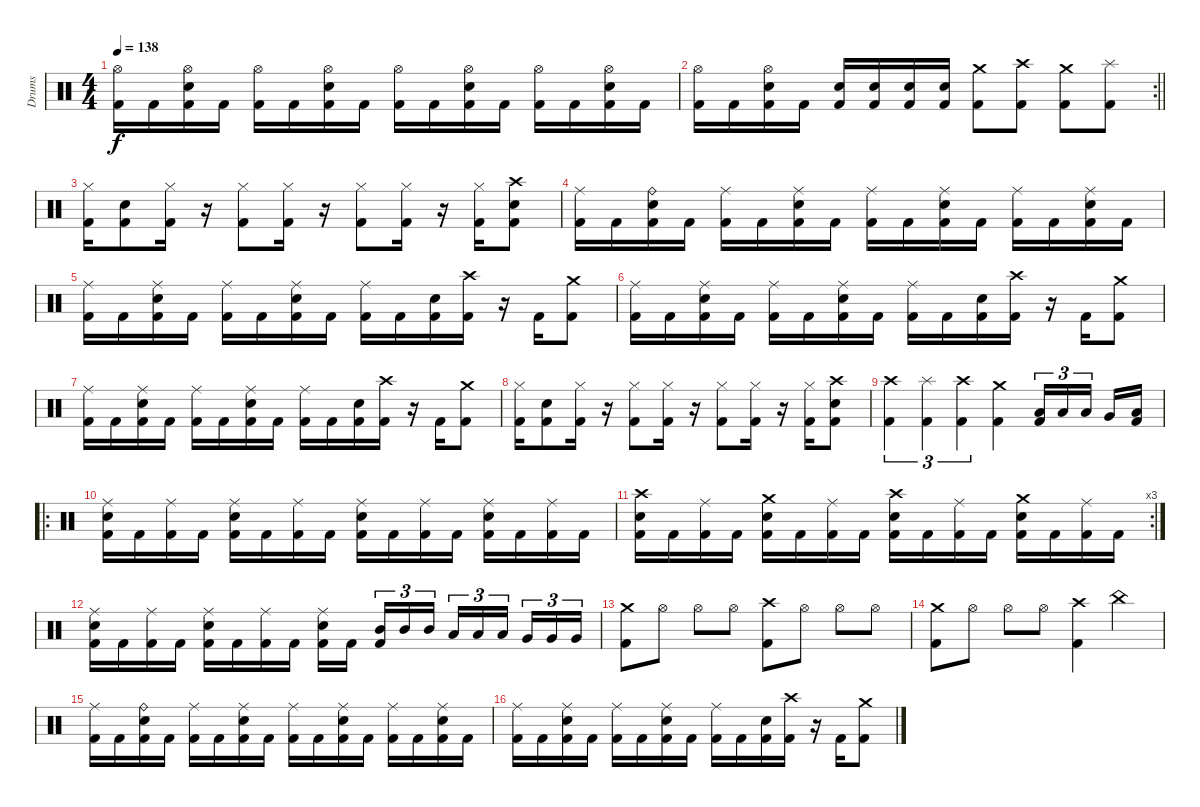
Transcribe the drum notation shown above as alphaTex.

\track ("Drums" "Drums") {instrument percussion}
\staff {score}
\articulation defaults
\ts (4 4)
\tempo 138
\clef neutral
\ks c
("Hi-Hat (open)" "Kick (hit) 2").16{dy f} "Kick (hit) 2".16 ("Hi-Hat (open)" "Electric Snare (hit)" "Kick (hit) 2").16 "Kick (hit) 2".16 ("Hi-Hat (open)" "Kick (hit) 2").16 "Kick (hit) 2".16 ("Hi-Hat (open)" "Electric Snare (hit)" "Kick (hit) 2").16 "Kick (hit) 2".16 ("Hi-Hat (open)" "Kick (hit) 2").16 "Kick (hit) 2".16 ("Hi-Hat (open)" "Electric Snare (hit)" "Kick (hit) 2").16 "Kick (hit) 2".16 ("Hi-Hat (open)" "Kick (hit) 2").16 "Kick (hit) 2".16 ("Hi-Hat (open)" "Electric Snare (hit)" "Kick (hit) 2").16 "Kick (hit) 2".16 |
\rc 2
\barLineRight lightlight
("Hi-Hat (open)" "Kick (hit) 2").16 "Kick (hit) 2".16 ("Hi-Hat (open)" "Electric Snare (hit)" "Kick (hit) 2").16 "Kick (hit) 2".16 ("Electric Snare (hit)" "Kick (hit) 2").16 ("Electric Snare (hit)" "Kick (hit) 2").16 ("Electric Snare (hit)" "Kick (hit) 2").16 ("Electric Snare (hit)" "Kick (hit) 2").16 ("Crash medium (hit)" "Kick (hit) 2").8 ("Crash high (hit)" "Kick (hit) 2").8 ("Crash medium (hit)" "Kick (hit) 2").8 ("Splash (hit)" "Kick (hit) 2").8 |
("Hi-Hat (closed)" "Kick (hit) 2").16 ("Electric Snare (hit)" "Kick (hit) 2").8 ("Hi-Hat (closed)" "Kick (hit) 2").16 r.16 ("Hi-Hat (closed)" "Kick (hit) 2").8 ("Hi-Hat (closed)" "Kick (hit) 2").16 r.16 ("Hi-Hat (closed)" "Kick (hit) 2").8 ("Hi-Hat (closed)" "Kick (hit) 2").16 r.16 ("Hi-Hat (closed)" "Kick (hit) 2").16 ("Crash high (hit)" "Electric Snare (hit)" "Kick (hit) 2").8 |
("Ride (middle)" "Kick (hit) 2").16 "Kick (hit) 2".16 ("Ride (bell)" "Electric Snare (hit)" "Kick (hit) 2").16 "Kick (hit) 2".16 ("Ride (middle)" "Kick (hit) 2").16 "Kick (hit) 2".16 ("Ride (middle)" "Electric Snare (hit)" "Kick (hit) 2").16 "Kick (hit) 2".16 ("Ride (middle)" "Kick (hit) 2").16 "Kick (hit) 2".16 ("Ride (middle)" "Electric Snare (hit)" "Kick (hit) 2").16 "Kick (hit) 2".16 ("Ride (middle)" "Kick (hit) 2").16 "Kick (hit) 2".16 ("Ride (middle)" "Electric Snare (hit)" "Kick (hit) 2").16 "Kick (hit) 2".16 |
("Ride (middle)" "Kick (hit) 2").16 "Kick (hit) 2".16 ("Ride (middle)" "Electric Snare (hit)" "Kick (hit) 2").16 "Kick (hit) 2".16 ("Ride (middle)" "Kick (hit) 2").16 "Kick (hit) 2".16 ("Ride (middle)" "Electric Snare (hit)" "Kick (hit) 2").16 "Kick (hit) 2".16 ("Ride (middle)" "Kick (hit) 2").16 "Kick (hit) 2".16 ("Electric Snare (hit)" "Kick (hit) 2").16 ("Crash high (hit)" "Kick (hit) 2").16 r.16 "Kick (hit) 2".16 ("Crash medium (hit)" "Kick (hit) 2").8 |
("Ride (middle)" "Kick (hit) 2").16 "Kick (hit) 2".16 ("Ride (middle)" "Electric Snare (hit)" "Kick (hit) 2").16 "Kick (hit) 2".16 ("Ride (middle)" "Kick (hit) 2").16 "Kick (hit) 2".16 ("Ride (middle)" "Electric Snare (hit)" "Kick (hit) 2").16 "Kick (hit) 2".16 ("Ride (middle)" "Kick (hit) 2").16 "Kick (hit) 2".16 ("Electric Snare (hit)" "Kick (hit) 2").16 ("Crash high (hit)" "Kick (hit) 2").16 r.16 "Kick (hit) 2".16 ("Crash medium (hit)" "Kick (hit) 2").8 |
("Ride (middle)" "Kick (hit) 2").16 "Kick (hit) 2".16 ("Ride (middle)" "Electric Snare (hit)" "Kick (hit) 2").16 "Kick (hit) 2".16 ("Ride (middle)" "Kick (hit) 2").16 "Kick (hit) 2".16 ("Ride (middle)" "Electric Snare (hit)" "Kick (hit) 2").16 "Kick (hit) 2".16 ("Ride (middle)" "Kick (hit) 2").16 "Kick (hit) 2".16 ("Electric Snare (hit)" "Kick (hit) 2").16 ("Crash high (hit)" "Kick (hit) 2").16 r.16 "Kick (hit) 2".16 ("Crash medium (hit)" "Kick (hit) 2").8 |
("Hi-Hat (closed)" "Kick (hit) 2").16 ("Electric Snare (hit)" "Kick (hit) 2").8 ("Hi-Hat (closed)" "Kick (hit) 2").16 r.16 ("Hi-Hat (closed)" "Kick (hit) 2").8 ("Hi-Hat (closed)" "Kick (hit) 2").16 r.16 ("Hi-Hat (closed)" "Kick (hit) 2").8 ("Hi-Hat (closed)" "Kick (hit) 2").16 r.16 ("Hi-Hat (closed)" "Kick (hit) 2").16 ("Crash high (hit)" "Electric Snare (hit)" "Kick (hit) 2").8 |
("Crash high (hit)" "Kick (hit) 2").4{tu (3 2)} ("Splash (hit)" "Kick (hit) 2").4{tu (3 2)} ("Crash high (hit)" "Kick (hit) 2").4{tu (3 2)} ("Crash medium (hit)" "Kick (hit) 2").4 ("Low Tom (hit)" "Kick (hit) 2").16{tu (3 2)} "Low Tom (hit)".16{tu (3 2)} "Low Tom (hit)".16{tu (3 2) beam splitsecondary} "Very Low Tom (hit)".16 ("Low Floor Tom (hit)" "Kick (hit) 2").16 |
\ro
("Ride (middle)" "Electric Snare (hit)" "Kick (hit) 2").16 "Kick (hit) 2".16 ("Ride (middle)" "Kick (hit) 2").16 "Kick (hit) 2".16 ("Ride (middle)" "Electric Snare (hit)" "Kick (hit) 2").16 "Kick (hit) 2".16 ("Ride (middle)" "Kick (hit) 2").16 "Kick (hit) 2".16 ("Ride (middle)" "Electric Snare (hit)" "Kick (hit) 2").16 "Kick (hit) 2".16 ("Ride (middle)" "Kick (hit) 2").16 "Kick (hit) 2".16 ("Ride (middle)" "Electric Snare (hit)" "Kick (hit) 2").16 "Kick (hit) 2".16 ("Ride (middle)" "Kick (hit) 2").16 "Kick (hit) 2".16 |
\rc 3
("Crash high (hit)" "Electric Snare (hit)" "Kick (hit) 2").16 "Kick (hit) 2".16 ("Ride (middle)" "Kick (hit) 2").16 "Kick (hit) 2".16 ("Crash medium (hit)" "Electric Snare (hit)" "Kick (hit) 2").16 "Kick (hit) 2".16 ("Ride (middle)" "Kick (hit) 2").16 "Kick (hit) 2".16 ("Crash high (hit)" "Electric Snare (hit)" "Kick (hit) 2").16 "Kick (hit) 2".16 ("Ride (middle)" "Kick (hit) 2").16 "Kick (hit) 2".16 ("Crash medium (hit)" "Electric Snare (hit)" "Kick (hit) 2").16 "Kick (hit) 2".16 ("Ride (middle)" "Kick (hit) 2").16 "Kick (hit) 2".16 |
("Ride (middle)" "Electric Snare (hit)" "Kick (hit) 2").16 "Kick (hit) 2".16 ("Ride (middle)" "Kick (hit) 2").16 "Kick (hit) 2".16 ("Ride (middle)" "Electric Snare (hit)" "Kick (hit) 2").16 "Kick (hit) 2".16 ("Ride (middle)" "Kick (hit) 2").16 "Kick (hit) 2".16 ("Ride (middle)" "Electric Snare (hit)" "Kick (hit) 2").16 "Kick (hit) 2".16{beam splitsecondary} ("Mid Tom (hit)" "Kick (hit) 2").16{tu (3 2)} "Mid Tom (hit)".16{tu (3 2)} "Mid Tom (hit)".16{tu (3 2)} "Low Tom (hit)".16{tu (3 2)} "Low Tom (hit)".16{tu (3 2)} "Low Tom (hit)".16{tu (3 2) beam splitsecondary} "Very Low Tom (hit)".16{tu (3 2)} "Very Low Tom (hit)".16{tu (3 2)} "Very Low Tom (hit)".16{tu (3 2)} |
("Crash medium (hit)" "Kick (hit) 2").8 "Hi-Hat (open)".8 "Hi-Hat (open)".8 "Hi-Hat (open)".8 ("Crash high (hit)" "Kick (hit) 2").8 "Hi-Hat (open)".8 "Hi-Hat (open)".8 "Hi-Hat (open)".8 |
("Crash medium (hit)" "Kick (hit) 2").8 "Hi-Hat (open)".8 "Hi-Hat (open)".8 "Hi-Hat (open)".8 ("Crash high (hit)" "Kick (hit) 2").4 "China (hit)".4 |
("Ride (middle)" "Kick (hit) 2").16 "Kick (hit) 2".16 ("Ride (bell)" "Electric Snare (hit)" "Kick (hit) 2").16 "Kick (hit) 2".16 ("Ride (middle)" "Kick (hit) 2").16 "Kick (hit) 2".16 ("Ride (middle)" "Electric Snare (hit)" "Kick (hit) 2").16 "Kick (hit) 2".16 ("Ride (middle)" "Kick (hit) 2").16 "Kick (hit) 2".16 ("Ride (middle)" "Electric Snare (hit)" "Kick (hit) 2").16 "Kick (hit) 2".16 ("Ride (middle)" "Kick (hit) 2").16 "Kick (hit) 2".16 ("Ride (middle)" "Electric Snare (hit)" "Kick (hit) 2").16 "Kick (hit) 2".16 |
("Ride (middle)" "Kick (hit) 2").16 "Kick (hit) 2".16 ("Ride (middle)" "Electric Snare (hit)" "Kick (hit) 2").16 "Kick (hit) 2".16 ("Ride (middle)" "Kick (hit) 2").16 "Kick (hit) 2".16 ("Ride (middle)" "Electric Snare (hit)" "Kick (hit) 2").16 "Kick (hit) 2".16 ("Ride (middle)" "Kick (hit) 2").16 "Kick (hit) 2".16 ("Electric Snare (hit)" "Kick (hit) 2").16 ("Crash high (hit)" "Kick (hit) 2").16 r.16 "Kick (hit) 2".16 ("Crash medium (hit)" "Kick (hit) 2").8
